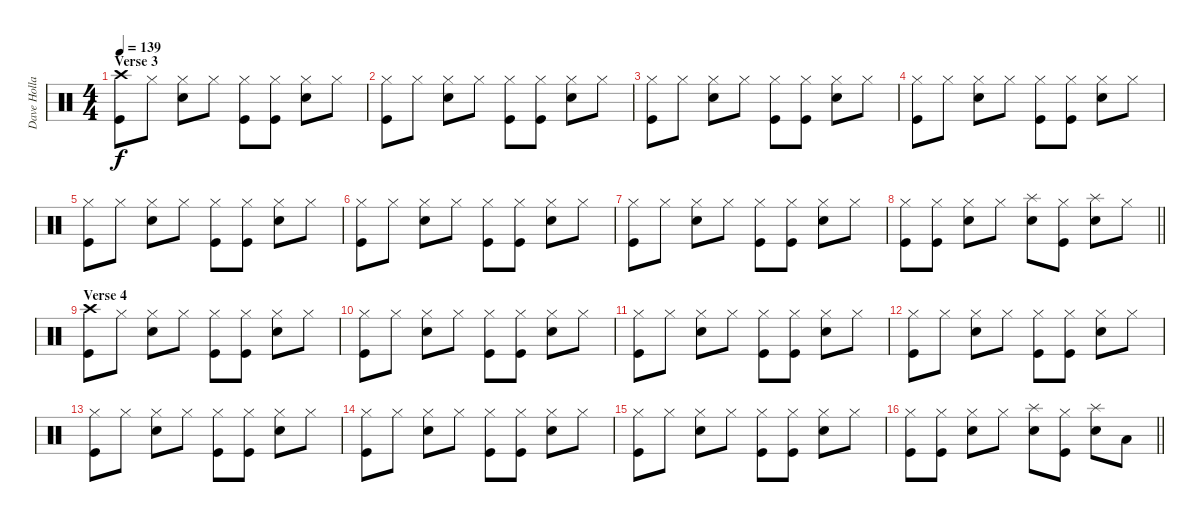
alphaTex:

\track ("Dave Holland" "Dave Holla") {instrument percussion}
\staff {score}
\articulation defaults
\ts (4 4)
\section ("" "Verse 3")
\tempo 139
\clef neutral
\ks c
("Crash high (hit)" "Kick (hit)").8{dy f} "Hi-Hat (closed)".8 ("Hi-Hat (closed)" "Electric Snare (hit)").8 "Hi-Hat (closed)".8 ("Hi-Hat (closed)" "Kick (hit)").8 ("Hi-Hat (closed)" "Kick (hit)").8 ("Hi-Hat (closed)" "Electric Snare (hit)").8 "Hi-Hat (closed)".8 |
("Hi-Hat (closed)" "Kick (hit)").8 "Hi-Hat (closed)".8 ("Hi-Hat (closed)" "Electric Snare (hit)").8 "Hi-Hat (closed)".8 ("Hi-Hat (closed)" "Kick (hit)").8 ("Hi-Hat (closed)" "Kick (hit)").8 ("Hi-Hat (closed)" "Electric Snare (hit)").8 "Hi-Hat (closed)".8 |
("Hi-Hat (closed)" "Kick (hit)").8 "Hi-Hat (closed)".8 ("Hi-Hat (closed)" "Electric Snare (hit)").8 "Hi-Hat (closed)".8 ("Hi-Hat (closed)" "Kick (hit)").8 ("Hi-Hat (closed)" "Kick (hit)").8 ("Hi-Hat (closed)" "Electric Snare (hit)").8 "Hi-Hat (closed)".8 |
("Hi-Hat (closed)" "Kick (hit)").8 "Hi-Hat (closed)".8 ("Hi-Hat (closed)" "Electric Snare (hit)").8 "Hi-Hat (closed)".8 ("Hi-Hat (closed)" "Kick (hit)").8 ("Hi-Hat (closed)" "Kick (hit)").8 ("Hi-Hat (closed)" "Electric Snare (hit)").8 "Hi-Hat (closed)".8 |
("Hi-Hat (closed)" "Kick (hit)").8 "Hi-Hat (closed)".8 ("Hi-Hat (closed)" "Electric Snare (hit)").8 "Hi-Hat (closed)".8 ("Hi-Hat (closed)" "Kick (hit)").8 ("Hi-Hat (closed)" "Kick (hit)").8 ("Hi-Hat (closed)" "Electric Snare (hit)").8 "Hi-Hat (closed)".8 |
("Hi-Hat (closed)" "Kick (hit)").8 "Hi-Hat (closed)".8 ("Hi-Hat (closed)" "Electric Snare (hit)").8 "Hi-Hat (closed)".8 ("Hi-Hat (closed)" "Kick (hit)").8 ("Hi-Hat (closed)" "Kick (hit)").8 ("Hi-Hat (closed)" "Electric Snare (hit)").8 "Hi-Hat (closed)".8 |
("Hi-Hat (closed)" "Kick (hit)").8 "Hi-Hat (closed)".8 ("Hi-Hat (closed)" "Electric Snare (hit)").8 "Hi-Hat (closed)".8 ("Hi-Hat (closed)" "Kick (hit)").8 ("Hi-Hat (closed)" "Kick (hit)").8 ("Hi-Hat (closed)" "Electric Snare (hit)").8 "Hi-Hat (closed)".8 |
\barLineRight lightlight
("Hi-Hat (closed)" "Kick (hit)").8 ("Hi-Hat (closed)" "Kick (hit)").8 ("Hi-Hat (closed)" "Electric Snare (hit)").8 "Hi-Hat (closed)".8 ("Splash (hit)" "Electric Snare (hit)").8 ("Hi-Hat (closed)" "Kick (hit)").8 ("Splash (hit)" "Electric Snare (hit)").8 "Hi-Hat (closed)".8 |
\section ("" "Verse 4")
("Crash high (hit)" "Kick (hit)").8 "Hi-Hat (closed)".8 ("Hi-Hat (closed)" "Electric Snare (hit)").8 "Hi-Hat (closed)".8 ("Hi-Hat (closed)" "Kick (hit)").8 ("Hi-Hat (closed)" "Kick (hit)").8 ("Hi-Hat (closed)" "Electric Snare (hit)").8 "Hi-Hat (closed)".8 |
("Hi-Hat (closed)" "Kick (hit)").8 "Hi-Hat (closed)".8 ("Hi-Hat (closed)" "Electric Snare (hit)").8 "Hi-Hat (closed)".8 ("Hi-Hat (closed)" "Kick (hit)").8 ("Hi-Hat (closed)" "Kick (hit)").8 ("Hi-Hat (closed)" "Electric Snare (hit)").8 "Hi-Hat (closed)".8 |
("Hi-Hat (closed)" "Kick (hit)").8 "Hi-Hat (closed)".8 ("Hi-Hat (closed)" "Electric Snare (hit)").8 "Hi-Hat (closed)".8 ("Hi-Hat (closed)" "Kick (hit)").8 ("Hi-Hat (closed)" "Kick (hit)").8 ("Hi-Hat (closed)" "Electric Snare (hit)").8 "Hi-Hat (closed)".8 |
("Hi-Hat (closed)" "Kick (hit)").8 "Hi-Hat (closed)".8 ("Hi-Hat (closed)" "Electric Snare (hit)").8 "Hi-Hat (closed)".8 ("Hi-Hat (closed)" "Kick (hit)").8 ("Hi-Hat (closed)" "Kick (hit)").8 ("Hi-Hat (closed)" "Electric Snare (hit)").8 "Hi-Hat (closed)".8 |
("Hi-Hat (closed)" "Kick (hit)").8 "Hi-Hat (closed)".8 ("Hi-Hat (closed)" "Electric Snare (hit)").8 "Hi-Hat (closed)".8 ("Hi-Hat (closed)" "Kick (hit)").8 ("Hi-Hat (closed)" "Kick (hit)").8 ("Hi-Hat (closed)" "Electric Snare (hit)").8 "Hi-Hat (closed)".8 |
("Hi-Hat (closed)" "Kick (hit)").8 "Hi-Hat (closed)".8 ("Hi-Hat (closed)" "Electric Snare (hit)").8 "Hi-Hat (closed)".8 ("Hi-Hat (closed)" "Kick (hit)").8 ("Hi-Hat (closed)" "Kick (hit)").8 ("Hi-Hat (closed)" "Electric Snare (hit)").8 "Hi-Hat (closed)".8 |
("Hi-Hat (closed)" "Kick (hit)").8 "Hi-Hat (closed)".8 ("Hi-Hat (closed)" "Electric Snare (hit)").8 "Hi-Hat (closed)".8 ("Hi-Hat (closed)" "Kick (hit)").8 ("Hi-Hat (closed)" "Kick (hit)").8 ("Hi-Hat (closed)" "Electric Snare (hit)").8 "Hi-Hat (closed)".8 |
\barLineRight lightlight
("Hi-Hat (closed)" "Kick (hit)").8 ("Hi-Hat (closed)" "Kick (hit)").8 ("Hi-Hat (closed)" "Electric Snare (hit)").8 "Hi-Hat (closed)".8 ("Splash (hit)" "Electric Snare (hit)").8 ("Hi-Hat (closed)" "Kick (hit)").8 ("Splash (hit)" "Electric Snare (hit)").8 "Low Tom (hit)".8
